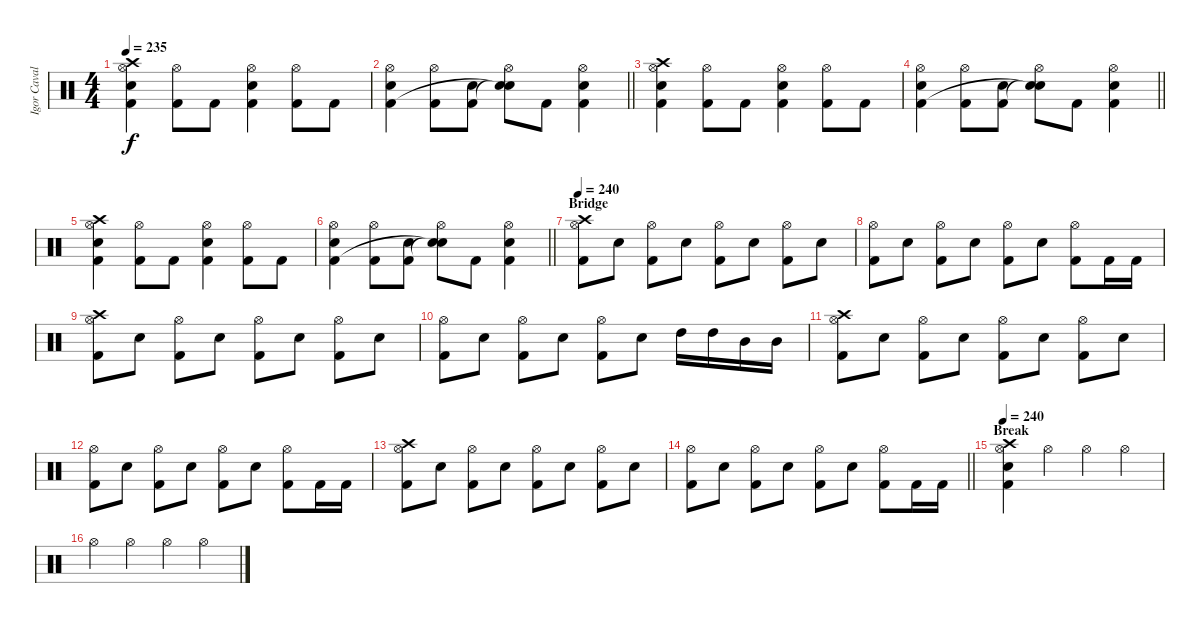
\track ("Igor Cavalera" "Igor Caval") {instrument percussion}
\staff {score}
\articulation defaults
\ts (4 4)
\tempo 235
\clef neutral
\ks c
("Crash high (hit)" "Hi-Hat (open)" "Electric Snare (hit)" "Kick (hit) 2").4{dy f} ("Hi-Hat (open)" "Kick (hit) 2").8 "Kick (hit) 2".8 ("Hi-Hat (open)" "Electric Snare (hit)" "Kick (hit) 2").4 ("Hi-Hat (open)" "Kick (hit) 2").8 "Kick (hit) 2".8 |
\barLineRight lightlight
("Hi-Hat (open)" "Electric Snare (hit)" "Kick (hit) 2").4 ("Hi-Hat (open)" "Kick (hit) 2").8 ("Electric Snare (hit)" "Kick (hit) 2").8 ("Hi-Hat (open)" "Snare (hit)"{t} "Snare (hit)"{t}).8 "Kick (hit) 2".8 ("Hi-Hat (open)" "Electric Snare (hit)" "Kick (hit) 2").4 |
("Crash high (hit)" "Hi-Hat (open)" "Electric Snare (hit)" "Kick (hit) 2").4 ("Hi-Hat (open)" "Kick (hit) 2").8 "Kick (hit) 2".8 ("Hi-Hat (open)" "Electric Snare (hit)" "Kick (hit) 2").4 ("Hi-Hat (open)" "Kick (hit) 2").8 "Kick (hit) 2".8 |
\barLineRight lightlight
("Hi-Hat (open)" "Electric Snare (hit)" "Kick (hit) 2").4 ("Hi-Hat (open)" "Kick (hit) 2").8 ("Electric Snare (hit)" "Kick (hit) 2").8 ("Hi-Hat (open)" "Snare (hit)"{t} "Snare (hit)"{t}).8 "Kick (hit) 2".8 ("Hi-Hat (open)" "Electric Snare (hit)" "Kick (hit) 2").4 |
("Crash high (hit)" "Hi-Hat (open)" "Electric Snare (hit)" "Kick (hit) 2").4 ("Hi-Hat (open)" "Kick (hit) 2").8 "Kick (hit) 2".8 ("Hi-Hat (open)" "Electric Snare (hit)" "Kick (hit) 2").4 ("Hi-Hat (open)" "Kick (hit) 2").8 "Kick (hit) 2".8 |
\barLineRight lightlight
("Hi-Hat (open)" "Electric Snare (hit)" "Kick (hit) 2").4 ("Hi-Hat (open)" "Kick (hit) 2").8 ("Electric Snare (hit)" "Kick (hit) 2").8 ("Hi-Hat (open)" "Snare (hit)"{t} "Snare (hit)"{t}).8 "Kick (hit) 2".8 ("Hi-Hat (open)" "Electric Snare (hit)" "Kick (hit) 2").4 |
\section ("" "Bridge")
\tempo 240
("Crash high (hit)" "Hi-Hat (open)" "Kick (hit) 2").8 "Electric Snare (hit)".8 ("Hi-Hat (open)" "Kick (hit) 2").8 "Electric Snare (hit)".8 ("Hi-Hat (open)" "Kick (hit) 2").8 "Electric Snare (hit)".8 ("Hi-Hat (open)" "Kick (hit) 2").8 "Electric Snare (hit)".8 |
("Hi-Hat (open)" "Kick (hit) 2").8 "Electric Snare (hit)".8 ("Hi-Hat (open)" "Kick (hit) 2").8 "Electric Snare (hit)".8 ("Hi-Hat (open)" "Kick (hit) 2").8 "Electric Snare (hit)".8 ("Hi-Hat (open)" "Kick (hit) 2").8 "Kick (hit) 2".16 "Kick (hit) 2".16 |
("Crash high (hit)" "Hi-Hat (open)" "Kick (hit) 2").8 "Electric Snare (hit)".8 ("Hi-Hat (open)" "Kick (hit) 2").8 "Electric Snare (hit)".8 ("Hi-Hat (open)" "Kick (hit) 2").8 "Electric Snare (hit)".8 ("Hi-Hat (open)" "Kick (hit) 2").8 "Electric Snare (hit)".8 |
("Hi-Hat (open)" "Kick (hit) 2").8 "Electric Snare (hit)".8 ("Hi-Hat (open)" "Kick (hit) 2").8 "Electric Snare (hit)".8 ("Hi-Hat (open)" "Kick (hit) 2").8 "Electric Snare (hit)".8 "High Tom (hit)".16 "High Tom (hit)".16 "Mid Tom (hit)".16 "Mid Tom (hit)".16 |
("Crash high (hit)" "Hi-Hat (open)" "Kick (hit) 2").8 "Electric Snare (hit)".8 ("Hi-Hat (open)" "Kick (hit) 2").8 "Electric Snare (hit)".8 ("Hi-Hat (open)" "Kick (hit) 2").8 "Electric Snare (hit)".8 ("Hi-Hat (open)" "Kick (hit) 2").8 "Electric Snare (hit)".8 |
("Hi-Hat (open)" "Kick (hit) 2").8 "Electric Snare (hit)".8 ("Hi-Hat (open)" "Kick (hit) 2").8 "Electric Snare (hit)".8 ("Hi-Hat (open)" "Kick (hit) 2").8 "Electric Snare (hit)".8 ("Hi-Hat (open)" "Kick (hit) 2").8 "Kick (hit) 2".16 "Kick (hit) 2".16 |
("Crash high (hit)" "Hi-Hat (open)" "Kick (hit) 2").8 "Electric Snare (hit)".8 ("Hi-Hat (open)" "Kick (hit) 2").8 "Electric Snare (hit)".8 ("Hi-Hat (open)" "Kick (hit) 2").8 "Electric Snare (hit)".8 ("Hi-Hat (open)" "Kick (hit) 2").8 "Electric Snare (hit)".8 |
\barLineRight lightlight
("Hi-Hat (open)" "Kick (hit) 2").8 "Electric Snare (hit)".8 ("Hi-Hat (open)" "Kick (hit) 2").8 "Electric Snare (hit)".8 ("Hi-Hat (open)" "Kick (hit) 2").8 "Electric Snare (hit)".8 ("Hi-Hat (open)" "Kick (hit) 2").8 "Kick (hit) 2".16 "Kick (hit) 2".16 |
\section ("" "Break")
\tempo 240
("Crash high (hit)" "Hi-Hat (open)" "Electric Snare (hit)" "Kick (hit) 2").4 "Hi-Hat (open)".4 "Hi-Hat (open)".4 "Hi-Hat (open)".4 |
"Hi-Hat (open)".4 "Hi-Hat (open)".4 "Hi-Hat (open)".4 "Hi-Hat (open)".4
